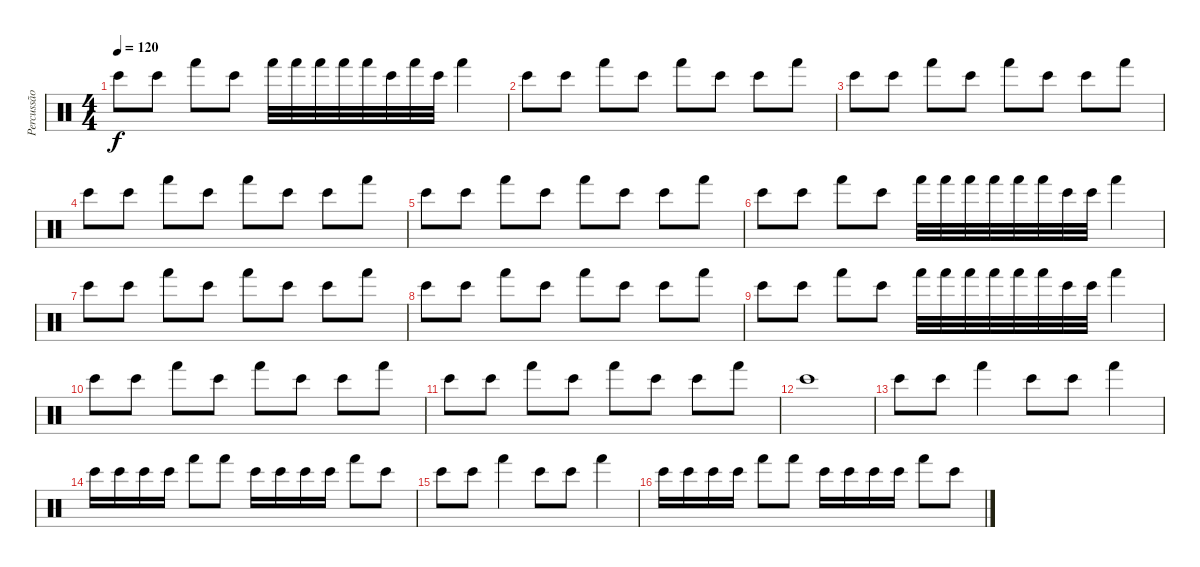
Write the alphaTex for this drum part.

\track ("Percussão" "Percussão") {instrument percussion}
\staff {score}
\articulation defaults
\ts (4 4)
\tempo 120
\clef neutral
\ks c "Bongo High (hit)".8{dy f} "Bongo High (hit)".8 "Hand (hit)".8 "Bongo High (hit)".8 "Hand (hit)".32 "Hand (hit)".32 "Hand (hit)".32 "Hand (hit)".32 "Hand (hit)".32 "Bongo High (hit)".32 "Hand (hit)".32 "Bongo High (hit)".32 "Hand (hit)".4
|
"Bongo High (hit)".8 "Bongo High (hit)".8 "Hand (hit)".8 "Bongo High (hit)".8 "Hand (hit)".8 "Bongo High (hit)".8 "Bongo High (hit)".8 "Hand (hit)".8 |
"Bongo High (hit)".8 "Bongo High (hit)".8 "Hand (hit)".8 "Bongo High (hit)".8 "Hand (hit)".8 "Bongo High (hit)".8 "Bongo High (hit)".8 "Hand (hit)".8 |
"Bongo High (hit)".8 "Bongo High (hit)".8 "Hand (hit)".8 "Bongo High (hit)".8 "Hand (hit)".8 "Bongo High (hit)".8 "Bongo High (hit)".8 "Hand (hit)".8 |
"Bongo High (hit)".8 "Bongo High (hit)".8 "Hand (hit)".8 "Bongo High (hit)".8 "Hand (hit)".8 "Bongo High (hit)".8 "Bongo High (hit)".8 "Hand (hit)".8 |
"Bongo High (hit)".8 "Bongo High (hit)".8 "Hand (hit)".8 "Bongo High (hit)".8 "Hand (hit)".32 "Hand (hit)".32 "Hand (hit)".32 "Hand (hit)".32 "Hand (hit)".32 "Hand (hit)".32 "Bongo High (hit)".32 "Bongo High (hit)".32 "Hand (hit)".4 |
"Bongo High (hit)".8 "Bongo High (hit)".8 "Hand (hit)".8 "Bongo High (hit)".8 "Hand (hit)".8 "Bongo High (hit)".8 "Bongo High (hit)".8 "Hand (hit)".8 |
"Bongo High (hit)".8 "Bongo High (hit)".8 "Hand (hit)".8 "Bongo High (hit)".8 "Hand (hit)".8 "Bongo High (hit)".8 "Bongo High (hit)".8 "Hand (hit)".8 |
"Bongo High (hit)".8 "Bongo High (hit)".8 "Hand (hit)".8 "Bongo High (hit)".8 "Hand (hit)".32 "Hand (hit)".32 "Hand (hit)".32 "Hand (hit)".32 "Hand (hit)".32 "Hand (hit)".32 "Bongo High (hit)".32 "Bongo High (hit)".32 "Hand (hit)".4 |
"Bongo High (hit)".8 "Bongo High (hit)".8 "Hand (hit)".8 "Bongo High (hit)".8 "Hand (hit)".8 "Bongo High (hit)".8 "Bongo High (hit)".8 "Hand (hit)".8 |
"Bongo High (hit)".8 "Bongo High (hit)".8 "Hand (hit)".8 "Bongo High (hit)".8 "Hand (hit)".8 "Bongo High (hit)".8 "Bongo High (hit)".8 "Hand (hit)".8 |
"Bongo High (hit)".1 |
"Bongo High (hit)".8 "Bongo High (hit)".8 "Hand (hit)".4 "Bongo High (hit)".8 "Bongo High (hit)".8 "Hand (hit)".4 |
"Bongo High (hit)".16 "Bongo High (hit)".16 "Bongo High (hit)".16 "Bongo High (hit)".16 "Hand (hit)".8 "Hand (hit)".8 "Bongo High (hit)".16 "Bongo High (hit)".16 "Bongo High (hit)".16 "Bongo High (hit)".16 "Hand (hit)".8 "Bongo High (hit)".8 |
"Bongo High (hit)".8 "Bongo High (hit)".8 "Hand (hit)".4 "Bongo High (hit)".8 "Bongo High (hit)".8 "Hand (hit)".4 |
"Bongo High (hit)".16 "Bongo High (hit)".16 "Bongo High (hit)".16 "Bongo High (hit)".16 "Hand (hit)".8 "Hand (hit)".8 "Bongo High (hit)".16 "Bongo High (hit)".16 "Bongo High (hit)".16 "Bongo High (hit)".16 "Hand (hit)".8 "Bongo High (hit)".8
